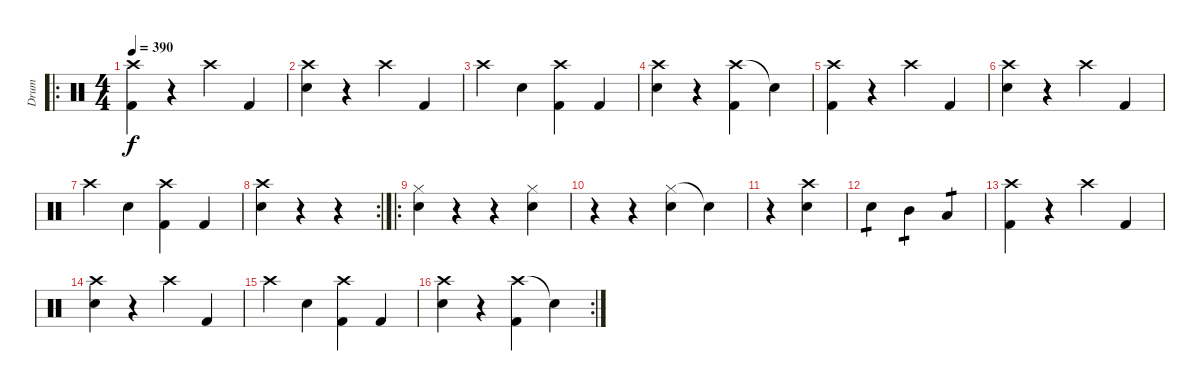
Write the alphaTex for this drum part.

\track ("Drum" "Drum") {instrument percussion}
\staff {score}
\articulation defaults
\ro
\ts (4 4)
\tempo 390
\clef neutral
\ks c
("Crash high (hit)" "Kick (hit) 2").4{dy f} r.4 "Crash high (hit)".4 "Kick (hit) 2".4 |
("Crash high (hit)" "Electric Snare (hit)").4 r.4 "Crash high (hit)".4 "Kick (hit) 2".4 |
"Crash high (hit)".4 "Electric Snare (hit)".4 ("Crash high (hit)" "Kick (hit) 2").4 "Kick (hit) 2".4 |
("Crash high (hit)" "Electric Snare (hit)").4 r.4 ("Crash high (hit)" "Kick (hit) 2").4 "Snare (hit)"{t}.4 |
("Crash high (hit)" "Kick (hit) 2").4 r.4 "Crash high (hit)".4 "Kick (hit) 2".4 |
("Crash high (hit)" "Electric Snare (hit)").4 r.4 "Crash high (hit)".4 "Kick (hit) 2".4 |
"Crash high (hit)".4 "Electric Snare (hit)".4 ("Crash high (hit)" "Kick (hit) 2").4 "Kick (hit) 2".4 |
\rc 2
("Crash high (hit)" "Electric Snare (hit)").4 r.4 r.4 |
\ro
("Hi-Hat (closed)" "Electric Snare (hit)").4 r.4 r.4 ("Hi-Hat (closed)" "Electric Snare (hit)").4 |
r.4 r.4 ("Hi-Hat (closed)" "Electric Snare (hit)").4 "Snare (hit)"{t}.4 |
r.4 ("Crash high (hit)" "Electric Snare (hit)").4 |
"Electric Snare (hit)".4{tp 1} "Mid Tom (hit)".4{tp 1} "Low Tom (hit)".4{tp 1} |
("Crash high (hit)" "Kick (hit) 2").4 r.4 "Crash high (hit)".4 "Kick (hit) 2".4 |
("Crash high (hit)" "Electric Snare (hit)").4 r.4 "Crash high (hit)".4 "Kick (hit) 2".4 |
"Crash high (hit)".4 "Electric Snare (hit)".4 ("Crash high (hit)" "Kick (hit) 2").4 "Kick (hit) 2".4 |
\rc 2
("Crash high (hit)" "Electric Snare (hit)").4 r.4 ("Crash high (hit)" "Kick (hit) 2").4 "Snare (hit)"{t}.4
